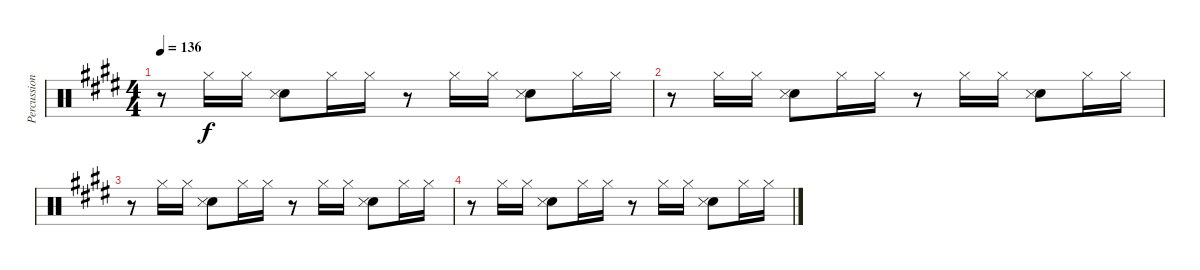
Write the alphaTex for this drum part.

\track ("Percussion" "Percussion") {instrument percussion}
\staff {score}
\articulation defaults
\ts (4 4)
\tempo 136
\clef neutral
\ks e
r.8{dy f} "Hi-Hat (closed)".16 "Hi-Hat (closed)".16 ("Hand Clap (hit)" "Snare (side stick) 3").8 "Hi-Hat (closed)".16 "Hi-Hat (closed)".16 r.8 "Hi-Hat (closed)".16 "Hi-Hat (closed)".16 ("Hand Clap (hit)" "Snare (side stick) 3").8 "Hi-Hat (closed)".16 "Hi-Hat (closed)".16 |
r.8 "Hi-Hat (closed)".16 "Hi-Hat (closed)".16 ("Hand Clap (hit)" "Snare (side stick) 3").8 "Hi-Hat (closed)".16 "Hi-Hat (closed)".16 r.8 "Hi-Hat (closed)".16 "Hi-Hat (closed)".16 ("Hand Clap (hit)" "Snare (side stick) 3").8 "Hi-Hat (closed)".16 "Hi-Hat (closed)".16 |
r.8 "Hi-Hat (closed)".16 "Hi-Hat (closed)".16 ("Hand Clap (hit)" "Snare (side stick) 3").8 "Hi-Hat (closed)".16 "Hi-Hat (closed)".16 r.8 "Hi-Hat (closed)".16 "Hi-Hat (closed)".16 ("Hand Clap (hit)" "Snare (side stick) 3").8 "Hi-Hat (closed)".16 "Hi-Hat (closed)".16 |
r.8 "Hi-Hat (closed)".16 "Hi-Hat (closed)".16 ("Hand Clap (hit)" "Snare (side stick) 3").8 "Hi-Hat (closed)".16 "Hi-Hat (closed)".16 r.8 "Hi-Hat (closed)".16 "Hi-Hat (closed)".16 ("Hand Clap (hit)" "Snare (side stick) 3").8 "Hi-Hat (closed)".16 "Hi-Hat (closed)".16
